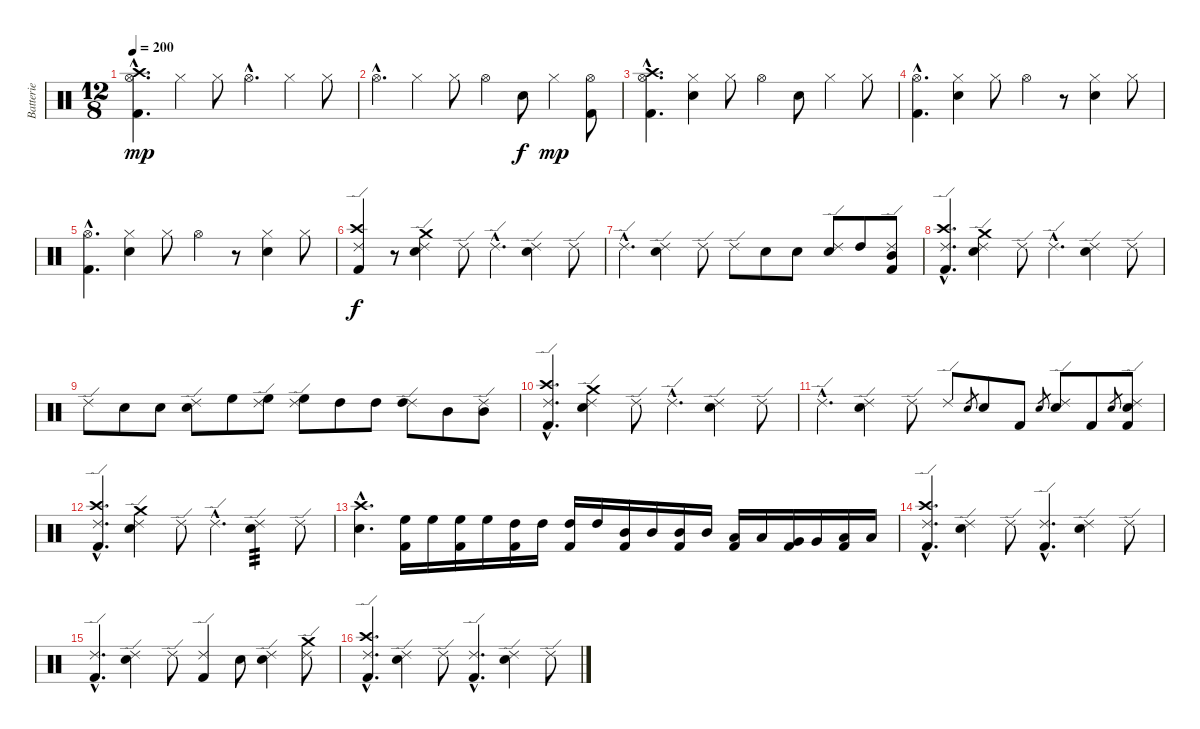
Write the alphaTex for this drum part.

\track ("Batterie" "Batterie") {instrument percussion}
\staff {score}
\articulation defaults
\ts (12 8)
\tempo 200
\clef neutral
\ks c
("Kick (hit) 2"{hac} "Crash high (hit)"{hac} "Hi-Hat (open)"{hac}).4{d dy mp} "Hi-Hat (closed)".4 "Hi-Hat (closed)".8 "Hi-Hat (open)"{hac}.4{d} "Hi-Hat (closed)".4 "Hi-Hat (closed)".8 |
"Hi-Hat (open)"{hac}.4{d} "Hi-Hat (closed)".4 "Hi-Hat (closed)".8 "Hi-Hat (open)".4 "Electric Snare (hit)".8{dy f} "Hi-Hat (closed)".4{dy mp} ("Hi-Hat (open)" "Kick (hit) 2").8 |
("Crash high (hit)"{hac} "Hi-Hat (open)"{hac} "Kick (hit) 2"{hac}).4{d} ("Electric Snare (hit)" "Hi-Hat (closed)").4 "Hi-Hat (closed)".8 "Hi-Hat (open)".4 "Electric Snare (hit)".8 "Hi-Hat (closed)".4 "Hi-Hat (closed)".8 |
("Hi-Hat (open)"{hac} "Kick (hit) 2"{hac}).4{d} ("Electric Snare (hit)" "Hi-Hat (closed)").4 "Hi-Hat (closed)".8 "Hi-Hat (open)".4 r.8 ("Hi-Hat (closed)" "Electric Snare (hit)").4 "Hi-Hat (closed)".8 |
("Hi-Hat (open)"{hac} "Kick (hit) 2"{hac}).4{d} ("Electric Snare (hit)" "Hi-Hat (closed)").4 "Hi-Hat (closed)".8 "Hi-Hat (open)".4 r.8 ("Hi-Hat (closed)" "Electric Snare (hit)").4 "Hi-Hat (closed)".8 |
("Crash high (hit)" "Kick (hit) 2" "Ride (edge) 2").4{dy f} r.8 ("Crash medium (hit)" "Snare (hit) 2" "Ride (edge) 2").4 "Ride (edge) 2".8 "Ride (edge) 2"{hac}.4{d} ("Snare (hit) 2" "Ride (edge) 2").4 "Ride (edge) 2".8 |
"Ride (edge) 2"{hac}.4{d} ("Snare (hit) 2" "Ride (edge) 2").4 "Ride (edge) 2".8 "Ride (edge) 2".8 "Snare (hit) 2".8 "Snare (hit) 2".8 ("Snare (hit) 2" "Ride (edge) 2").8 "High Tom (hit)".8 ("Mid Tom (hit)" "Ride (edge) 2" "Kick (hit) 2").8 |
("Crash high (hit)"{hac} "Ride (edge) 2"{hac} "Kick (hit) 2"{hac}).4{d} ("Crash medium (hit)" "Snare (hit) 2" "Ride (edge) 2").4 "Ride (edge) 2".8 "Ride (edge) 2"{hac}.4{d} ("Snare (hit) 2" "Ride (edge) 2").4 "Ride (edge) 2".8 |
"Ride (edge) 2".8 "Snare (hit) 2".8 "Snare (hit) 2".8 ("Ride (edge) 2" "Snare (hit) 2").8 "High Floor Tom (hit)".8 ("Ride (edge) 2" "High Floor Tom (hit)").8 ("Ride (edge) 2" "High Floor Tom (hit)").8 "High Tom (hit)".8 "High Tom (hit)".8 ("Ride (edge) 2" "High Tom (hit)").8 "Mid Tom (hit)".8 ("Ride (edge) 2" "Mid Tom (hit)").8 |
("Crash high (hit)"{hac} "Ride (edge) 2"{hac} "Kick (hit) 2"{hac}).4{d} ("Crash medium (hit)" "Snare (hit) 2" "Ride (edge) 2").4 "Ride (edge) 2".8 "Ride (edge) 2"{hac}.4{d} ("Snare (hit) 2" "Ride (edge) 2").4 "Ride (edge) 2".8 |
"Ride (edge) 2"{hac}.4{d} ("Snare (hit) 2" "Ride (edge) 2").4 "Ride (edge) 2".8 "Ride (edge) 2".8 "Snare (hit) 2".8{gr} "Snare (hit) 2".8 "Kick (hit) 2".8 "Snare (hit) 2".8{gr} ("Snare (hit) 2" "Ride (edge) 2").8 "Kick (hit) 2".8 "Snare (hit) 2".8{gr} ("Snare (hit) 2" "Ride (edge) 2" "Kick (hit) 2").8 |
("Crash high (hit)"{hac} "Ride (edge) 2"{hac} "Kick (hit) 2"{hac}).4{d} ("Crash medium (hit)" "Snare (hit) 2" "Ride (edge) 2").4 "Ride (edge) 2".8 "Ride (edge) 2"{hac}.4{d} ("Snare (hit) 2" "Ride (edge) 2").4{tp 3} "Ride (edge) 2".8 |
("Hand Clap (hit)"{hac} "Crash high (hit)"{hac}).4{d} ("High Floor Tom (hit)" "Kick (hit) 2").16 "High Floor Tom (hit)".16 ("High Floor Tom (hit)" "Kick (hit) 2").16 "High Floor Tom (hit)".16 ("High Tom (hit)" "Kick (hit) 2").16 "High Tom (hit)".16 ("High Tom (hit)" "Kick (hit) 2").16 "High Tom (hit)".16 ("Mid Tom (hit)" "Kick (hit) 2").16 "Mid Tom (hit)".16 ("Mid Tom (hit)" "Kick (hit) 2").16 "Mid Tom (hit)".16 ("Low Tom (hit)" "Kick (hit) 2").16 "Low Tom (hit)".16 ("Very Low Tom (hit)" "Kick (hit) 2").16 "Very Low Tom (hit)".16 ("Low Floor Tom (hit)" "Kick (hit) 2").16 "Low Floor Tom (hit)".16 |
("Crash high (hit)"{hac} "Ride (edge) 2"{hac} "Kick (hit) 2"{hac}).4{d} ("Ride (edge) 2" "Snare (hit) 2").4 "Ride (edge) 2".8 ("Ride (edge) 2"{hac} "Kick (hit) 2"{hac}).4{d} ("Ride (edge) 2" "Snare (hit) 2").4 "Ride (edge) 2".8 |
("Ride (edge) 2"{hac} "Kick (hit) 2"{hac}).4{d} ("Ride (edge) 2" "Snare (hit) 2").4 "Ride (edge) 2".8 ("Ride (edge) 2" "Kick (hit) 2").4 "Snare (hit) 2".8 ("Ride (edge) 2" "Snare (hit) 2").4 ("Crash medium (hit)" "Ride (edge) 2").8 |
("Crash high (hit)"{hac} "Ride (edge) 2"{hac} "Kick (hit) 2"{hac}).4{d} ("Ride (edge) 2" "Snare (hit) 2").4 "Ride (edge) 2".8 ("Ride (edge) 2"{hac} "Kick (hit) 2"{hac}).4{d} ("Ride (edge) 2" "Snare (hit) 2").4 "Ride (edge) 2".8
